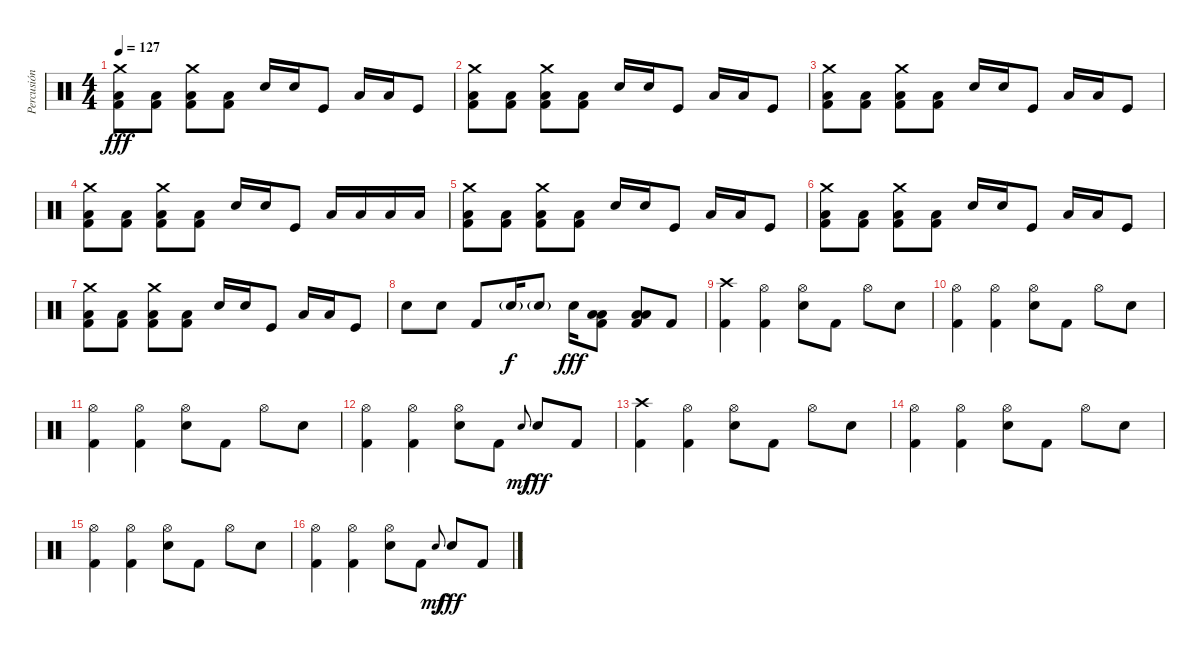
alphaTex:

\track ("Percusión" "Percusión") {instrument percussion}
\staff {score}
\articulation defaults
\ts (4 4)
\tempo 127
\clef neutral
\ks c
("Crash medium (hit)" "Low Tom (hit)" "Kick (hit) 2").8{dy fff} ("Low Tom (hit)" "Kick (hit) 2").8 ("Crash medium (hit)" "Low Tom (hit)" "Kick (hit) 2").8 ("Low Tom (hit)" "Kick (hit) 2").8 "Electric Snare (hit)".16 "Electric Snare (hit)".16 "Kick (hit)".8 "Low Tom (hit)".16 "Low Tom (hit)".16 "Kick (hit)".8 |
("Crash medium (hit)" "Low Tom (hit)" "Kick (hit) 2").8 ("Low Tom (hit)" "Kick (hit) 2").8 ("Crash medium (hit)" "Low Tom (hit)" "Kick (hit) 2").8 ("Low Tom (hit)" "Kick (hit) 2").8 "Electric Snare (hit)".16 "Electric Snare (hit)".16 "Kick (hit)".8 "Low Tom (hit)".16 "Low Tom (hit)".16 "Kick (hit)".8 |
("Crash medium (hit)" "Low Tom (hit)" "Kick (hit) 2").8 ("Low Tom (hit)" "Kick (hit) 2").8 ("Crash medium (hit)" "Low Tom (hit)" "Kick (hit) 2").8 ("Low Tom (hit)" "Kick (hit) 2").8 "Electric Snare (hit)".16 "Electric Snare (hit)".16 "Kick (hit)".8 "Low Tom (hit)".16 "Low Tom (hit)".16 "Kick (hit)".8 |
("Crash medium (hit)" "Low Tom (hit)" "Kick (hit) 2").8 ("Low Tom (hit)" "Kick (hit) 2").8 ("Crash medium (hit)" "Low Tom (hit)" "Kick (hit) 2").8 ("Low Tom (hit)" "Kick (hit) 2").8 "Electric Snare (hit)".16 "Electric Snare (hit)".16 "Kick (hit)".8 "Low Floor Tom (hit)".16 "Low Floor Tom (hit)".16 "Low Floor Tom (hit)".16 "Low Floor Tom (hit)".16 |
("Crash medium (hit)" "Low Tom (hit)" "Kick (hit) 2").8 ("Low Tom (hit)" "Kick (hit) 2").8 ("Crash medium (hit)" "Low Tom (hit)" "Kick (hit) 2").8 ("Low Tom (hit)" "Kick (hit) 2").8 "Electric Snare (hit)".16 "Electric Snare (hit)".16 "Kick (hit)".8 "Low Tom (hit)".16 "Low Tom (hit)".16 "Kick (hit)".8 |
("Crash medium (hit)" "Low Tom (hit)" "Kick (hit) 2").8 ("Low Tom (hit)" "Kick (hit) 2").8 ("Crash medium (hit)" "Low Tom (hit)" "Kick (hit) 2").8 ("Low Tom (hit)" "Kick (hit) 2").8 "Electric Snare (hit)".16 "Electric Snare (hit)".16 "Kick (hit)".8 "Low Tom (hit)".16 "Low Tom (hit)".16 "Kick (hit)".8 |
("Crash medium (hit)" "Low Tom (hit)" "Kick (hit) 2").8 ("Low Tom (hit)" "Kick (hit) 2").8 ("Crash medium (hit)" "Low Tom (hit)" "Kick (hit) 2").8 ("Low Tom (hit)" "Kick (hit) 2").8 "Electric Snare (hit)".16 "Electric Snare (hit)".16 "Kick (hit)".8 "Low Tom (hit)".16 "Low Tom (hit)".16 "Kick (hit)".8 |
"Electric Snare (hit)".8 "Electric Snare (hit)".8 "Kick (hit) 2".8 "Electric Snare (hit)"{g}.16{dy f} "Electric Snare (hit)"{g}.8 "Electric Snare (hit)".16{dy fff} ("Low Tom (hit)" "Low Floor Tom (hit)" "Kick (hit) 2").8 ("Low Tom (hit)" "Low Floor Tom (hit)" "Kick (hit) 2").8 "Kick (hit) 2".8 |
("Crash high (hit)" "Kick (hit) 2").4 ("Hi-Hat (open)" "Kick (hit) 2").4 ("Hi-Hat (open)" "Electric Snare (hit)").8 "Kick (hit) 2".8 "Hi-Hat (open)".8 "Electric Snare (hit)".8 |
("Hi-Hat (open)" "Kick (hit) 2").4 ("Hi-Hat (open)" "Kick (hit) 2").4 ("Hi-Hat (open)" "Electric Snare (hit)").8 "Kick (hit) 2".8 "Hi-Hat (open)".8 "Electric Snare (hit)".8 |
("Hi-Hat (open)" "Kick (hit) 2").4 ("Hi-Hat (open)" "Kick (hit) 2").4 ("Hi-Hat (open)" "Electric Snare (hit)").8 "Kick (hit) 2".8 "Hi-Hat (open)".8 "Electric Snare (hit)".8 |
("Hi-Hat (open)" "Kick (hit) 2").4 ("Hi-Hat (open)" "Kick (hit) 2").4 ("Hi-Hat (open)" "Electric Snare (hit)").8 "Kick (hit) 2".8 "Electric Snare (hit)".8{gr onbeat dy mf} "Electric Snare (hit)".8{dy fff} "Kick (hit) 2".8 |
("Crash high (hit)" "Kick (hit) 2").4 ("Hi-Hat (open)" "Kick (hit) 2").4 ("Hi-Hat (open)" "Electric Snare (hit)").8 "Kick (hit) 2".8 "Hi-Hat (open)".8 "Electric Snare (hit)".8 |
("Hi-Hat (open)" "Kick (hit) 2").4 ("Hi-Hat (open)" "Kick (hit) 2").4 ("Hi-Hat (open)" "Electric Snare (hit)").8 "Kick (hit) 2".8 "Hi-Hat (open)".8 "Electric Snare (hit)".8 |
("Hi-Hat (open)" "Kick (hit) 2").4 ("Hi-Hat (open)" "Kick (hit) 2").4 ("Hi-Hat (open)" "Electric Snare (hit)").8 "Kick (hit) 2".8 "Hi-Hat (open)".8 "Electric Snare (hit)".8 |
("Hi-Hat (open)" "Kick (hit) 2").4 ("Hi-Hat (open)" "Kick (hit) 2").4 ("Hi-Hat (open)" "Electric Snare (hit)").8 "Kick (hit) 2".8 "Electric Snare (hit)".8{gr onbeat dy mf} "Electric Snare (hit)".8{dy fff} "Kick (hit) 2".8
